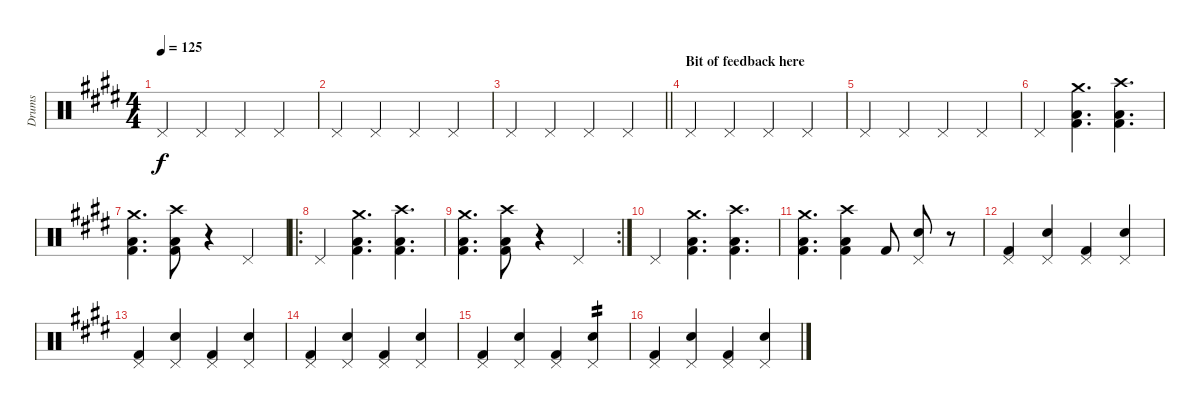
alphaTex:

\track ("Drums" "Drums") {instrument percussion}
\staff {score}
\articulation defaults
\ts (4 4)
\tempo 125
\clef neutral
\ks e "Pedal Hi-Hat (hit)".4{dy f} "Pedal Hi-Hat (hit)".4 "Pedal Hi-Hat (hit)".4 "Pedal Hi-Hat (hit)".4
|
"Pedal Hi-Hat (hit)".4 "Pedal Hi-Hat (hit)".4 "Pedal Hi-Hat (hit)".4 "Pedal Hi-Hat (hit)".4 |
\barLineRight lightlight "Pedal Hi-Hat (hit)".4 "Pedal Hi-Hat (hit)".4 "Pedal Hi-Hat (hit)".4 "Pedal Hi-Hat (hit)".4
|
\section ("" "Bit of feedback here")
"Pedal Hi-Hat (hit)".4 "Pedal Hi-Hat (hit)".4 "Pedal Hi-Hat (hit)".4 "Pedal Hi-Hat (hit)".4 |
"Pedal Hi-Hat (hit)".4 "Pedal Hi-Hat (hit)".4 "Pedal Hi-Hat (hit)".4 "Pedal Hi-Hat (hit)".4 |
"Pedal Hi-Hat (hit)".4 ("Kick (hit) 2" "Low Floor Tom (hit)" "Crash medium (hit)").4{d} ("Kick (hit) 2" "Low Floor Tom (hit)" "Crash high (hit)").4{d} |
("Kick (hit) 2" "Low Floor Tom (hit)" "Crash medium (hit)").4{d} ("Kick (hit) 2" "Low Floor Tom (hit)" "Crash high (hit)").8 r.4 "Pedal Hi-Hat (hit)".4 |
\ro "Pedal Hi-Hat (hit)".4
("Kick (hit) 2" "Low Floor Tom (hit)" "Crash medium (hit)").4{d} ("Kick (hit) 2" "Low Floor Tom (hit)" "Crash high (hit)").4{d} |
\rc 2
("Kick (hit) 2" "Low Floor Tom (hit)" "Crash medium (hit)").4{d} ("Kick (hit) 2" "Low Floor Tom (hit)" "Crash high (hit)").8 r.4 "Pedal Hi-Hat (hit)".4 |
"Pedal Hi-Hat (hit)".4 ("Kick (hit) 2" "Low Floor Tom (hit)" "Crash medium (hit)").4{d} ("Kick (hit) 2" "Low Floor Tom (hit)" "Crash high (hit)").4{d} |
("Kick (hit) 2" "Low Floor Tom (hit)" "Crash medium (hit)").4{d} ("Kick (hit) 2" "Low Floor Tom (hit)" "Crash high (hit)").4 "Kick (hit) 2".8 ("Snare (hit) 2" "Pedal Hi-Hat (hit)").8 r.8 |
("Kick (hit) 2" "Pedal Hi-Hat (hit)").4 ("Snare (hit) 2" "Pedal Hi-Hat (hit)").4 ("Kick (hit) 2" "Pedal Hi-Hat (hit)").4 ("Snare (hit) 2" "Pedal Hi-Hat (hit)").4 |
("Kick (hit) 2" "Pedal Hi-Hat (hit)").4 ("Snare (hit) 2" "Pedal Hi-Hat (hit)").4 ("Kick (hit) 2" "Pedal Hi-Hat (hit)").4 ("Snare (hit) 2" "Pedal Hi-Hat (hit)").4 |
("Kick (hit) 2" "Pedal Hi-Hat (hit)").4 ("Snare (hit) 2" "Pedal Hi-Hat (hit)").4 ("Kick (hit) 2" "Pedal Hi-Hat (hit)").4 ("Snare (hit) 2" "Pedal Hi-Hat (hit)").4 |
("Kick (hit) 2" "Pedal Hi-Hat (hit)").4 ("Snare (hit) 2" "Pedal Hi-Hat (hit)").4 ("Kick (hit) 2" "Pedal Hi-Hat (hit)").4 ("Snare (hit) 2" "Pedal Hi-Hat (hit)").4{tp 2} |
("Kick (hit) 2" "Pedal Hi-Hat (hit)").4 ("Snare (hit) 2" "Pedal Hi-Hat (hit)").4 ("Kick (hit) 2" "Pedal Hi-Hat (hit)").4 ("Snare (hit) 2" "Pedal Hi-Hat (hit)").4
